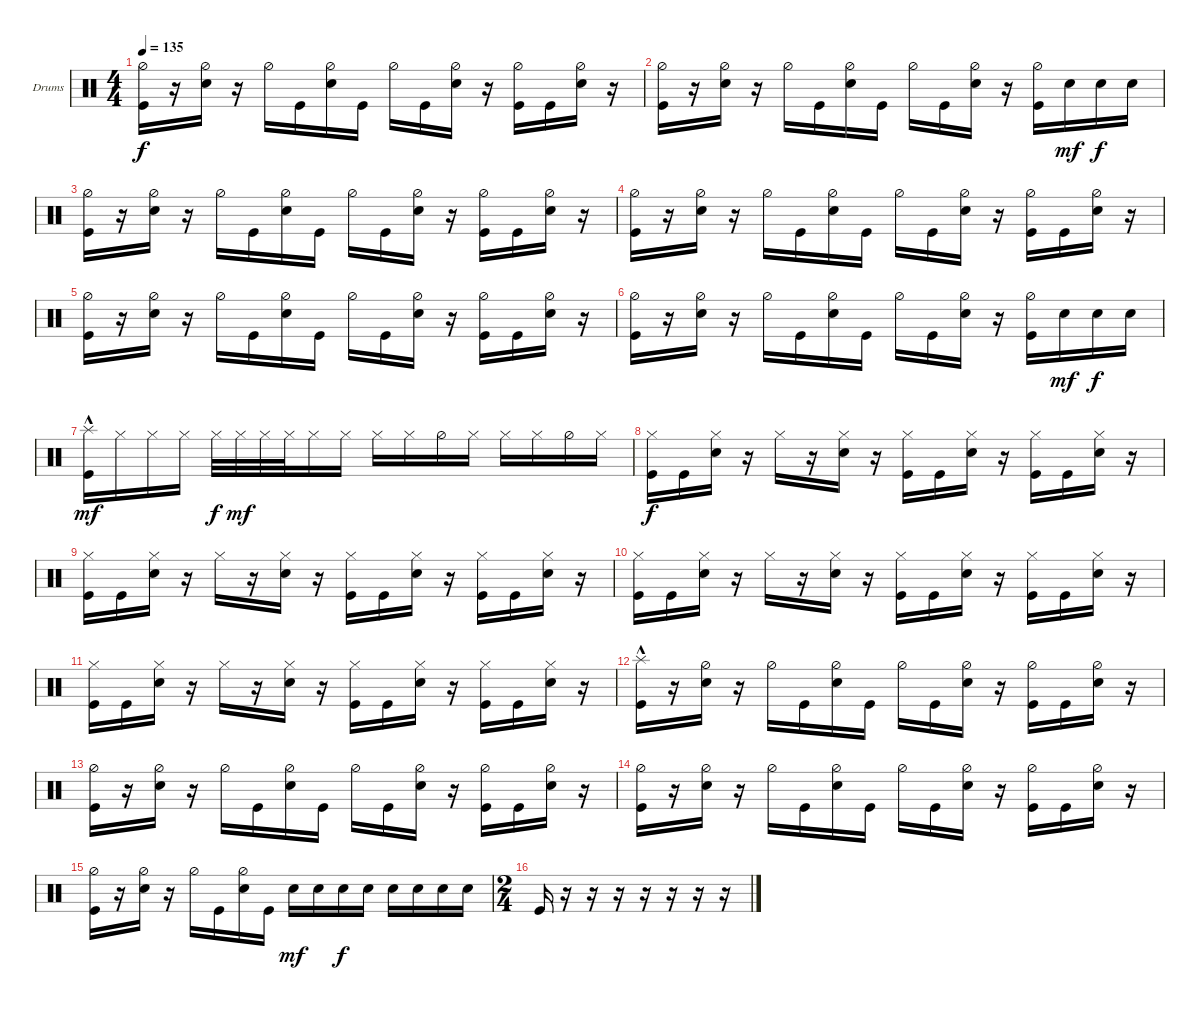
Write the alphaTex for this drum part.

\defaultSystemsLayout 4
\bracketExtendMode groupsimilarinstruments
\firstSystemTrackNameOrientation horizontal
\otherSystemsTrackNameOrientation horizontal
\track ("Drumkit" "Drums") {instrument percussion}
\staff {score}
\articulation defaults
\ts (4 4)
\tempo 135
\clef neutral
\ks c
("Kick (hit)" "Hi-Hat (half)").16{dy f} r.16 ("Snare (hit) 2" "Hi-Hat (half)").16 r.16 "Hi-Hat (half)".16 "Kick (hit)".16 ("Snare (hit) 2" "Hi-Hat (half)").16 "Kick (hit)".16 "Hi-Hat (half)".16 "Kick (hit)".16 ("Snare (hit) 2" "Hi-Hat (half)").16 r.16 ("Kick (hit)" "Hi-Hat (half)").16 "Kick (hit)".16 ("Snare (hit) 2" "Hi-Hat (half)").16 r.16 |
("Kick (hit)" "Hi-Hat (half)").16 r.16 ("Snare (hit) 2" "Hi-Hat (half)").16 r.16 "Hi-Hat (half)".16 "Kick (hit)".16 ("Snare (hit) 2" "Hi-Hat (half)").16 "Kick (hit)".16 "Hi-Hat (half)".16 "Kick (hit)".16 ("Snare (hit) 2" "Hi-Hat (half)").16 r.16 ("Kick (hit)" "Hi-Hat (half)").16 "Snare (hit) 2".16{dy mf} "Snare (hit) 2".16{dy f} "Snare (hit) 2".16 |
("Kick (hit)" "Hi-Hat (half)").16 r.16 ("Snare (hit) 2" "Hi-Hat (half)").16 r.16 "Hi-Hat (half)".16 "Kick (hit)".16 ("Snare (hit) 2" "Hi-Hat (half)").16 "Kick (hit)".16 "Hi-Hat (half)".16 "Kick (hit)".16 ("Snare (hit) 2" "Hi-Hat (half)").16 r.16 ("Kick (hit)" "Hi-Hat (half)").16 "Kick (hit)".16 ("Snare (hit) 2" "Hi-Hat (half)").16 r.16 |
("Kick (hit)" "Hi-Hat (half)").16 r.16 ("Snare (hit) 2" "Hi-Hat (half)").16 r.16 "Hi-Hat (half)".16 "Kick (hit)".16 ("Snare (hit) 2" "Hi-Hat (half)").16 "Kick (hit)".16 "Hi-Hat (half)".16 "Kick (hit)".16 ("Snare (hit) 2" "Hi-Hat (half)").16 r.16 ("Kick (hit)" "Hi-Hat (half)").16 "Kick (hit)".16 ("Snare (hit) 2" "Hi-Hat (half)").16 r.16 |
("Kick (hit)" "Hi-Hat (half)").16 r.16 ("Snare (hit) 2" "Hi-Hat (half)").16 r.16 "Hi-Hat (half)".16 "Kick (hit)".16 ("Snare (hit) 2" "Hi-Hat (half)").16 "Kick (hit)".16 "Hi-Hat (half)".16 "Kick (hit)".16 ("Snare (hit) 2" "Hi-Hat (half)").16 r.16 ("Kick (hit)" "Hi-Hat (half)").16 "Kick (hit)".16 ("Snare (hit) 2" "Hi-Hat (half)").16 r.16 |
("Kick (hit)" "Hi-Hat (half)").16 r.16 ("Snare (hit) 2" "Hi-Hat (half)").16 r.16 "Hi-Hat (half)".16 "Kick (hit)".16 ("Snare (hit) 2" "Hi-Hat (half)").16 "Kick (hit)".16 "Hi-Hat (half)".16 "Kick (hit)".16 ("Snare (hit) 2" "Hi-Hat (half)").16 r.16 ("Kick (hit)" "Hi-Hat (half)").16 "Snare (hit) 2".16{dy mf} "Snare (hit) 2".16{dy f} "Snare (hit) 2".16 |
("Kick (hit)" "Splash (hit)"{hac}).16{dy mf} "Hi-Hat (closed)".16 "Hi-Hat (closed)".16 "Hi-Hat (closed)".16 "Hi-Hat (closed)".32{dy f} "Hi-Hat (closed)".32{dy mf} "Hi-Hat (closed)".32 "Hi-Hat (closed)".32 "Hi-Hat (closed)".16 "Hi-Hat (closed)".16 "Hi-Hat (closed)".16 "Hi-Hat (closed)".16 "Hi-Hat (half)".16 "Hi-Hat (closed)".16 "Hi-Hat (closed)".16 "Hi-Hat (closed)".16 "Hi-Hat (half)".16 "Hi-Hat (closed)".16 |
("Kick (hit)" "Hi-Hat (closed)").16{dy f} "Kick (hit)".16 ("Snare (hit) 2" "Hi-Hat (closed)").16 r.16 "Hi-Hat (closed)".16 r.16 ("Snare (hit) 2" "Hi-Hat (closed)").16 r.16 ("Hi-Hat (closed)" "Kick (hit)").16 "Kick (hit)".16 ("Snare (hit) 2" "Hi-Hat (closed)").16 r.16 ("Hi-Hat (closed)" "Kick (hit)").16 "Kick (hit)".16 ("Snare (hit) 2" "Hi-Hat (closed)").16 r.16 |
("Kick (hit)" "Hi-Hat (closed)").16 "Kick (hit)".16 ("Snare (hit) 2" "Hi-Hat (closed)").16 r.16 "Hi-Hat (closed)".16 r.16 ("Snare (hit) 2" "Hi-Hat (closed)").16 r.16 ("Hi-Hat (closed)" "Kick (hit)").16 "Kick (hit)".16 ("Snare (hit) 2" "Hi-Hat (closed)").16 r.16 ("Hi-Hat (closed)" "Kick (hit)").16 "Kick (hit)".16 ("Snare (hit) 2" "Hi-Hat (closed)").16 r.16 |
("Kick (hit)" "Hi-Hat (closed)").16 "Kick (hit)".16 ("Snare (hit) 2" "Hi-Hat (closed)").16 r.16 "Hi-Hat (closed)".16 r.16 ("Snare (hit) 2" "Hi-Hat (closed)").16 r.16 ("Hi-Hat (closed)" "Kick (hit)").16 "Kick (hit)".16 ("Snare (hit) 2" "Hi-Hat (closed)").16 r.16 ("Hi-Hat (closed)" "Kick (hit)").16 "Kick (hit)".16 ("Snare (hit) 2" "Hi-Hat (closed)").16 r.16 |
("Kick (hit)" "Hi-Hat (closed)").16 "Kick (hit)".16 ("Snare (hit) 2" "Hi-Hat (closed)").16 r.16 "Hi-Hat (closed)".16 r.16 ("Snare (hit) 2" "Hi-Hat (closed)").16 r.16 ("Hi-Hat (closed)" "Kick (hit)").16 "Kick (hit)".16 ("Snare (hit) 2" "Hi-Hat (closed)").16 r.16 ("Hi-Hat (closed)" "Kick (hit)").16 "Kick (hit)".16 ("Snare (hit) 2" "Hi-Hat (closed)").16 r.16 |
("Kick (hit)" "Splash (hit)"{hac}).16 r.16 ("Snare (hit) 2" "Hi-Hat (half)").16 r.16 "Hi-Hat (half)".16 "Kick (hit)".16 ("Snare (hit) 2" "Hi-Hat (half)").16 "Kick (hit)".16 "Hi-Hat (half)".16 "Kick (hit)".16 ("Snare (hit) 2" "Hi-Hat (half)").16 r.16 ("Kick (hit)" "Hi-Hat (half)").16 "Kick (hit)".16 ("Snare (hit) 2" "Hi-Hat (half)").16 r.16 |
("Kick (hit)" "Hi-Hat (half)").16 r.16 ("Snare (hit) 2" "Hi-Hat (half)").16 r.16 "Hi-Hat (half)".16 "Kick (hit)".16 ("Snare (hit) 2" "Hi-Hat (half)").16 "Kick (hit)".16 "Hi-Hat (half)".16 "Kick (hit)".16 ("Snare (hit) 2" "Hi-Hat (half)").16 r.16 ("Kick (hit)" "Hi-Hat (half)").16 "Kick (hit)".16 ("Snare (hit) 2" "Hi-Hat (half)").16 r.16 |
("Kick (hit)" "Hi-Hat (half)").16 r.16 ("Snare (hit) 2" "Hi-Hat (half)").16 r.16 "Hi-Hat (half)".16 "Kick (hit)".16 ("Snare (hit) 2" "Hi-Hat (half)").16 "Kick (hit)".16 "Hi-Hat (half)".16 "Kick (hit)".16 ("Snare (hit) 2" "Hi-Hat (half)").16 r.16 ("Kick (hit)" "Hi-Hat (half)").16 "Kick (hit)".16 ("Snare (hit) 2" "Hi-Hat (half)").16 r.16 |
("Kick (hit)" "Hi-Hat (half)").16 r.16 ("Snare (hit) 2" "Hi-Hat (half)").16 r.16 "Hi-Hat (half)".16 "Kick (hit)".16 ("Snare (hit) 2" "Hi-Hat (half)").16 "Kick (hit)".16 "Snare (hit) 2".16{dy mf} "Snare (hit) 2".16 "Snare (hit) 2".16{dy f} "Snare (hit) 2".16 "Snare (hit) 2".16 "Snare (hit) 2".16 "Snare (hit) 2".16 "Snare (hit) 2".16 |
\ts (2 4)
"Kick (hit)".16 r.16 r.16 r.16 r.16 r.16 r.16 r.16
